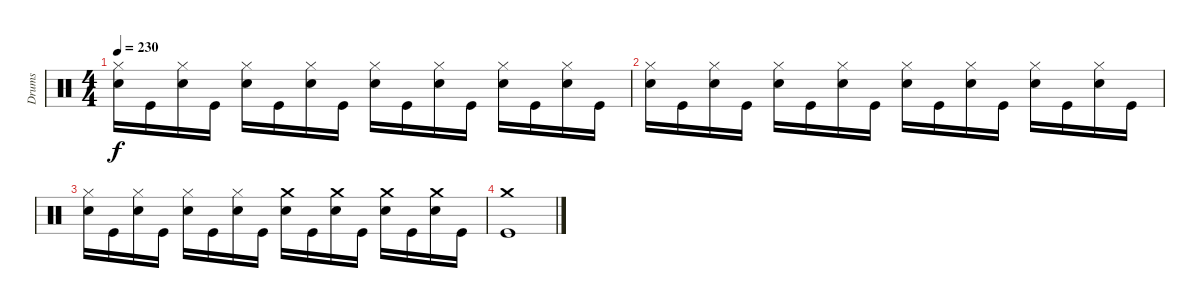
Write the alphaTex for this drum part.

\track ("Drums" "Drums") {instrument percussion}
\staff {score}
\articulation defaults
\ts (4 4)
\tempo 230
\clef neutral
\ks c
("Hi-Hat (closed)" "Electric Snare (hit)").16{dy f} "Kick (hit)".16 ("Hi-Hat (closed)" "Electric Snare (hit)").16 "Kick (hit)".16 ("Hi-Hat (closed)" "Electric Snare (hit)").16 "Kick (hit)".16 ("Hi-Hat (closed)" "Electric Snare (hit)").16 "Kick (hit)".16 ("Hi-Hat (closed)" "Electric Snare (hit)").16 "Kick (hit)".16 ("Hi-Hat (closed)" "Electric Snare (hit)").16 "Kick (hit)".16 ("Hi-Hat (closed)" "Electric Snare (hit)").16 "Kick (hit)".16 ("Hi-Hat (closed)" "Electric Snare (hit)").16 "Kick (hit)".16 |
("Hi-Hat (closed)" "Electric Snare (hit)").16 "Kick (hit)".16 ("Hi-Hat (closed)" "Electric Snare (hit)").16 "Kick (hit)".16 ("Hi-Hat (closed)" "Electric Snare (hit)").16 "Kick (hit)".16 ("Hi-Hat (closed)" "Electric Snare (hit)").16 "Kick (hit)".16 ("Hi-Hat (closed)" "Electric Snare (hit)").16 "Kick (hit)".16 ("Hi-Hat (closed)" "Electric Snare (hit)").16 "Kick (hit)".16 ("Hi-Hat (closed)" "Electric Snare (hit)").16 "Kick (hit)".16 ("Hi-Hat (closed)" "Electric Snare (hit)").16 "Kick (hit)".16 |
("Hi-Hat (closed)" "Electric Snare (hit)").16 "Kick (hit)".16 ("Hi-Hat (closed)" "Electric Snare (hit)").16 "Kick (hit)".16 ("Hi-Hat (closed)" "Electric Snare (hit)").16 "Kick (hit)".16 ("Hi-Hat (closed)" "Electric Snare (hit)").16 "Kick (hit)".16 ("Crash medium (hit)" "Electric Snare (hit)").16 "Kick (hit)".16 ("Crash medium (hit)" "Electric Snare (hit)").16 "Kick (hit)".16 ("Crash medium (hit)" "Electric Snare (hit)").16 "Kick (hit)".16 ("Crash medium (hit)" "Electric Snare (hit)").16 "Kick (hit)".16 |
("Crash medium (hit)" "Kick (hit)").1
